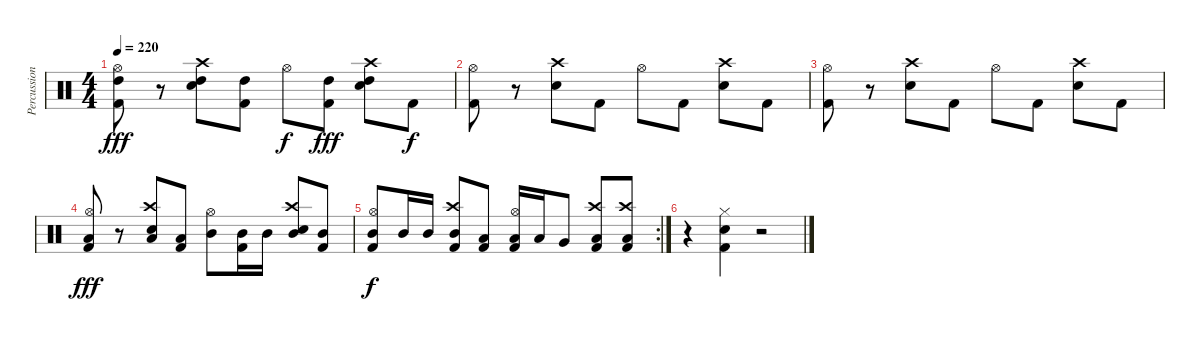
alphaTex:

\track ("Percussion" "Percussion") {instrument percussion}
\staff {score}
\articulation defaults
\ts (4 4)
\tempo 220
\clef neutral
\ks c
("Kick (hit) 2" "High Tom (hit)" "Hi-Hat (open)").8{dy fff} r.8 ("Snare (hit) 2" "High Tom (hit)" "Crash high (hit)").8 ("Kick (hit) 2" "High Tom (hit)").8 "Hi-Hat (open)".8{dy f} ("Kick (hit) 2" "High Tom (hit)").8{dy fff} ("Snare (hit) 2" "High Tom (hit)" "Crash high (hit)").8 "Kick (hit) 2".8{dy f} |
("Kick (hit) 2" "Hi-Hat (open)").8 r.8 ("Snare (hit) 2" "Crash high (hit)").8 "Kick (hit) 2".8 "Hi-Hat (open)".8 "Kick (hit) 2".8 ("Snare (hit) 2" "Crash high (hit)").8 "Kick (hit) 2".8 |
("Kick (hit) 2" "Hi-Hat (open)").8 r.8 ("Snare (hit) 2" "Crash high (hit)").8 "Kick (hit) 2".8 "Hi-Hat (open)".8 "Kick (hit) 2".8 ("Snare (hit) 2" "Crash high (hit)").8 "Kick (hit) 2".8 |
("Kick (hit) 2" "Low Tom (hit)" "Hi-Hat (open)").8{dy fff} r.8 ("Snare (hit) 2" "Low Tom (hit)" "Crash high (hit)").8 ("Kick (hit) 2" "Low Tom (hit)").8 ("Mid Tom (hit)" "Hi-Hat (open)").8 ("Kick (hit) 2" "Mid Tom (hit)").16 "Mid Tom (hit)".16 ("Snare (hit) 2" "Mid Tom (hit)" "Crash high (hit)").8 ("Kick (hit) 2" "Mid Tom (hit)").8 |
\rc 2
("Mid Tom (hit)" "Hi-Hat (open)" "Kick (hit) 2").8{dy f} "Mid Tom (hit)".16 "Mid Tom (hit)".16 ("Mid Tom (hit)" "Crash high (hit)" "Kick (hit) 2").8 ("Low Tom (hit)" "Kick (hit) 2").8 ("Low Tom (hit)" "Hi-Hat (open)" "Kick (hit) 2").16 "Low Tom (hit)".16 "Very Low Tom (hit)".8 ("Low Tom (hit)" "Crash high (hit)" "Kick (hit) 2").8 ("Low Floor Tom (hit)" "Crash high (hit)" "Kick (hit) 2").8 |
r.4 ("Snare (hit) 2" "Hi-Hat (closed)" "Kick (hit) 2").4 r.2
